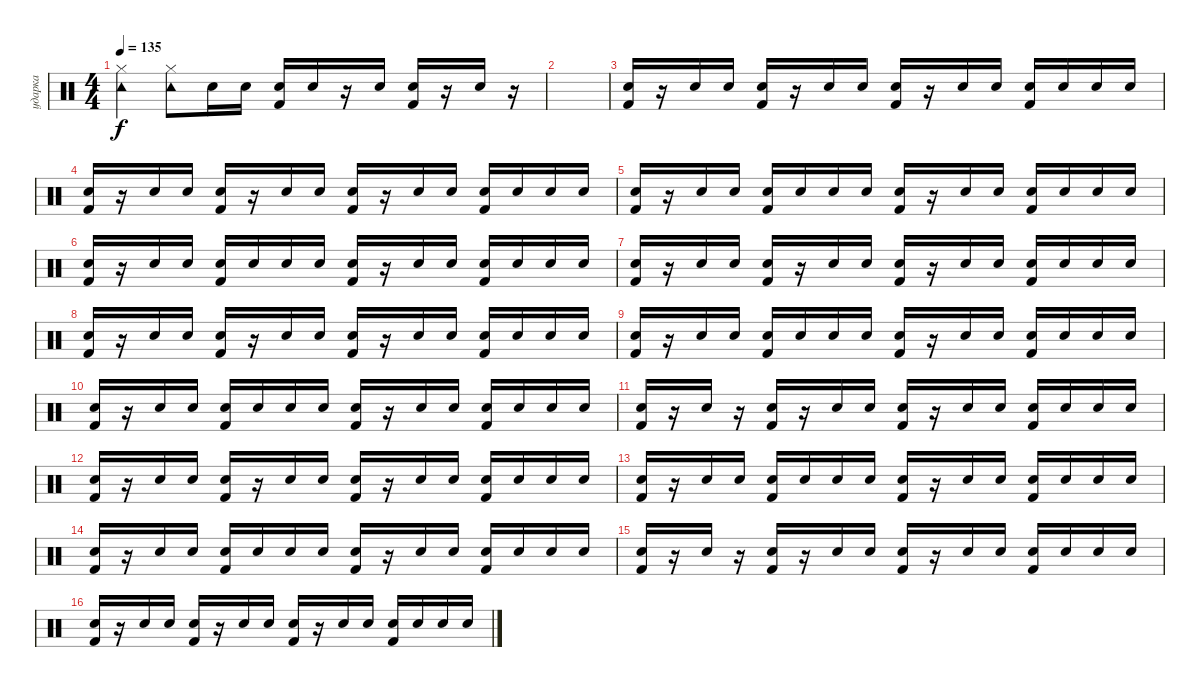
\track ("ударка" "ударка") {instrument percussion}
\staff {score}
\articulation defaults
\ts (4 4)
\tempo 135
\clef neutral
\ks c
("Hi-Hat (closed)" "Tambourine (hit)").4{dy f} ("Hi-Hat (closed)" "Tambourine (hit)").8 "Snare (hit) 2".16 "Snare (hit) 2".16 ("Snare (hit) 2" "Kick (hit) 2").16 "Snare (hit) 2".16 r.16 "Snare (hit) 2".16 ("Snare (hit) 2" "Kick (hit) 2").16 r.16 "Snare (hit) 2".16 r.16 |
|
("Snare (hit) 2" "Kick (hit) 2").16 r.16 "Snare (hit) 2".16 "Snare (hit) 2".16 ("Snare (hit) 2" "Kick (hit) 2").16 r.16 "Snare (hit) 2".16 "Snare (hit) 2".16 ("Snare (hit) 2" "Kick (hit) 2").16 r.16 "Snare (hit) 2".16 "Snare (hit) 2".16 ("Snare (hit) 2" "Kick (hit) 2").16 "Snare (hit) 2".16 "Snare (hit) 2".16 "Snare (hit) 2".16 |
("Snare (hit) 2" "Kick (hit) 2").16 r.16 "Snare (hit) 2".16 "Snare (hit) 2".16 ("Snare (hit) 2" "Kick (hit) 2").16 r.16 "Snare (hit) 2".16 "Snare (hit) 2".16 ("Snare (hit) 2" "Kick (hit) 2").16 r.16 "Snare (hit) 2".16 "Snare (hit) 2".16 ("Snare (hit) 2" "Kick (hit) 2").16 "Snare (hit) 2".16 "Snare (hit) 2".16 "Snare (hit) 2".16 |
("Snare (hit) 2" "Kick (hit) 2").16 r.16 "Snare (hit) 2".16 "Snare (hit) 2".16 ("Snare (hit) 2" "Kick (hit) 2").16 "Snare (hit) 2".16 "Snare (hit) 2".16 "Snare (hit) 2".16 ("Snare (hit) 2" "Kick (hit) 2").16 r.16 "Snare (hit) 2".16 "Snare (hit) 2".16 ("Snare (hit) 2" "Kick (hit) 2").16 "Snare (hit) 2".16 "Snare (hit) 2".16 "Snare (hit) 2".16 |
("Snare (hit) 2" "Kick (hit) 2").16 r.16 "Snare (hit) 2".16 "Snare (hit) 2".16 ("Snare (hit) 2" "Kick (hit) 2").16 "Snare (hit) 2".16 "Snare (hit) 2".16 "Snare (hit) 2".16 ("Snare (hit) 2" "Kick (hit) 2").16 r.16 "Snare (hit) 2".16 "Snare (hit) 2".16 ("Snare (hit) 2" "Kick (hit) 2").16 "Snare (hit) 2".16 "Snare (hit) 2".16 "Snare (hit) 2".16 |
("Snare (hit) 2" "Kick (hit) 2").16 r.16 "Snare (hit) 2".16 "Snare (hit) 2".16 ("Snare (hit) 2" "Kick (hit) 2").16 r.16 "Snare (hit) 2".16 "Snare (hit) 2".16 ("Snare (hit) 2" "Kick (hit) 2").16 r.16 "Snare (hit) 2".16 "Snare (hit) 2".16 ("Snare (hit) 2" "Kick (hit) 2").16 "Snare (hit) 2".16 "Snare (hit) 2".16 "Snare (hit) 2".16 |
("Snare (hit) 2" "Kick (hit) 2").16 r.16 "Snare (hit) 2".16 "Snare (hit) 2".16 ("Snare (hit) 2" "Kick (hit) 2").16 r.16 "Snare (hit) 2".16 "Snare (hit) 2".16 ("Snare (hit) 2" "Kick (hit) 2").16 r.16 "Snare (hit) 2".16 "Snare (hit) 2".16 ("Snare (hit) 2" "Kick (hit) 2").16 "Snare (hit) 2".16 "Snare (hit) 2".16 "Snare (hit) 2".16 |
("Snare (hit) 2" "Kick (hit) 2").16 r.16 "Snare (hit) 2".16 "Snare (hit) 2".16 ("Snare (hit) 2" "Kick (hit) 2").16 "Snare (hit) 2".16 "Snare (hit) 2".16 "Snare (hit) 2".16 ("Snare (hit) 2" "Kick (hit) 2").16 r.16 "Snare (hit) 2".16 "Snare (hit) 2".16 ("Snare (hit) 2" "Kick (hit) 2").16 "Snare (hit) 2".16 "Snare (hit) 2".16 "Snare (hit) 2".16 |
("Snare (hit) 2" "Kick (hit) 2").16 r.16 "Snare (hit) 2".16 "Snare (hit) 2".16 ("Snare (hit) 2" "Kick (hit) 2").16 "Snare (hit) 2".16 "Snare (hit) 2".16 "Snare (hit) 2".16 ("Snare (hit) 2" "Kick (hit) 2").16 r.16 "Snare (hit) 2".16 "Snare (hit) 2".16 ("Snare (hit) 2" "Kick (hit) 2").16 "Snare (hit) 2".16 "Snare (hit) 2".16 "Snare (hit) 2".16 |
("Snare (hit) 2" "Kick (hit) 2").16 r.16 "Snare (hit) 2".16 r.16 ("Snare (hit) 2" "Kick (hit) 2").16 r.16 "Snare (hit) 2".16 "Snare (hit) 2".16 ("Snare (hit) 2" "Kick (hit) 2").16 r.16 "Snare (hit) 2".16 "Snare (hit) 2".16 ("Snare (hit) 2" "Kick (hit) 2").16 "Snare (hit) 2".16 "Snare (hit) 2".16 "Snare (hit) 2".16 |
("Snare (hit) 2" "Kick (hit) 2").16 r.16 "Snare (hit) 2".16 "Snare (hit) 2".16 ("Snare (hit) 2" "Kick (hit) 2").16 r.16 "Snare (hit) 2".16 "Snare (hit) 2".16 ("Snare (hit) 2" "Kick (hit) 2").16 r.16 "Snare (hit) 2".16 "Snare (hit) 2".16 ("Snare (hit) 2" "Kick (hit) 2").16 "Snare (hit) 2".16 "Snare (hit) 2".16 "Snare (hit) 2".16 |
("Snare (hit) 2" "Kick (hit) 2").16 r.16 "Snare (hit) 2".16 "Snare (hit) 2".16 ("Snare (hit) 2" "Kick (hit) 2").16 "Snare (hit) 2".16 "Snare (hit) 2".16 "Snare (hit) 2".16 ("Snare (hit) 2" "Kick (hit) 2").16 r.16 "Snare (hit) 2".16 "Snare (hit) 2".16 ("Snare (hit) 2" "Kick (hit) 2").16 "Snare (hit) 2".16 "Snare (hit) 2".16 "Snare (hit) 2".16 |
("Snare (hit) 2" "Kick (hit) 2").16 r.16 "Snare (hit) 2".16 "Snare (hit) 2".16 ("Snare (hit) 2" "Kick (hit) 2").16 "Snare (hit) 2".16 "Snare (hit) 2".16 "Snare (hit) 2".16 ("Snare (hit) 2" "Kick (hit) 2").16 r.16 "Snare (hit) 2".16 "Snare (hit) 2".16 ("Snare (hit) 2" "Kick (hit) 2").16 "Snare (hit) 2".16 "Snare (hit) 2".16 "Snare (hit) 2".16 |
("Snare (hit) 2" "Kick (hit) 2").16 r.16 "Snare (hit) 2".16 r.16 ("Snare (hit) 2" "Kick (hit) 2").16 r.16 "Snare (hit) 2".16 "Snare (hit) 2".16 ("Snare (hit) 2" "Kick (hit) 2").16 r.16 "Snare (hit) 2".16 "Snare (hit) 2".16 ("Snare (hit) 2" "Kick (hit) 2").16 "Snare (hit) 2".16 "Snare (hit) 2".16 "Snare (hit) 2".16 |
("Snare (hit) 2" "Kick (hit) 2").16 r.16 "Snare (hit) 2".16 "Snare (hit) 2".16 ("Snare (hit) 2" "Kick (hit) 2").16 r.16 "Snare (hit) 2".16 "Snare (hit) 2".16 ("Snare (hit) 2" "Kick (hit) 2").16 r.16 "Snare (hit) 2".16 "Snare (hit) 2".16 ("Snare (hit) 2" "Kick (hit) 2").16 "Snare (hit) 2".16 "Snare (hit) 2".16 "Snare (hit) 2".16
